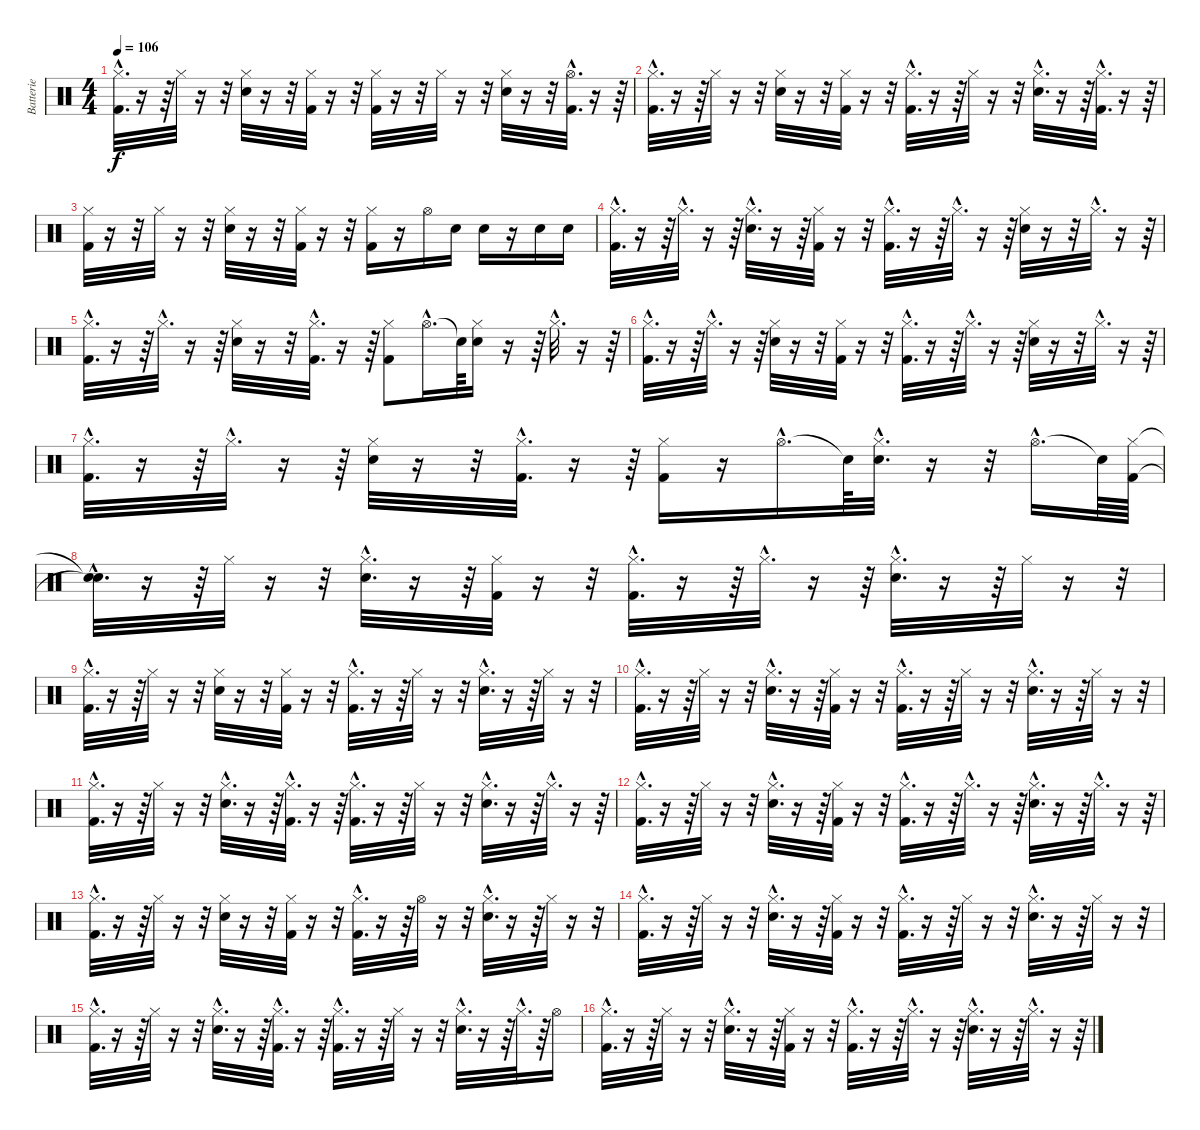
\track ("Batterie" "Batterie") {instrument percussion}
\staff {score}
\articulation defaults
\ts (4 4)
\tempo 106
\clef neutral
\ks c
("Hi-Hat (closed)"{hac} "Kick (hit) 2"{hac}).32{d dy f} r.16 r.64 "Hi-Hat (closed)".32 r.16 r.32 ("Hi-Hat (closed)" "Snare (hit) 2").32 r.16 r.32 ("Hi-Hat (closed)" "Kick (hit) 2").32 r.16 r.32 ("Hi-Hat (closed)" "Kick (hit) 2").32 r.16 r.32 "Hi-Hat (closed)".32 r.16 r.32 ("Hi-Hat (closed)" "Snare (hit) 2").32 r.16 r.32 ("Hi-Hat (open)"{hac} "Kick (hit) 2"{hac}).32{d} r.16 r.64 |
("Hi-Hat (closed)"{hac} "Kick (hit) 2"{hac}).32{d} r.16 r.64 "Hi-Hat (closed)".32 r.16 r.32 ("Hi-Hat (closed)" "Snare (hit) 2").32 r.16 r.32 ("Hi-Hat (closed)" "Kick (hit) 2").32 r.16 r.32 ("Hi-Hat (closed)"{hac} "Kick (hit) 2"{hac}).32{d} r.16 r.64 "Hi-Hat (closed)".32 r.16 r.32 ("Hi-Hat (closed)"{hac} "Snare (hit) 2"{hac}).32{d} r.16 r.64 ("Hi-Hat (closed)"{hac} "Kick (hit) 2"{hac}).32{d} r.16 r.64 |
("Hi-Hat (closed)" "Kick (hit) 2").32 r.16 r.32 "Hi-Hat (closed)".32 r.16 r.32 ("Hi-Hat (closed)" "Snare (hit) 2").32 r.16 r.32 ("Hi-Hat (closed)" "Kick (hit) 2").32 r.16 r.32 ("Hi-Hat (closed)" "Kick (hit) 2").16 r.16 "Hi-Hat (open)".16 "Snare (hit) 2".16 "Snare (hit) 2".16 r.16 "Snare (hit) 2".16 "Snare (hit) 2".16 |
("Hi-Hat (closed)"{hac} "Kick (hit) 2"{hac}).32{d} r.16 r.64 "Hi-Hat (closed)"{hac}.32{d} r.16 r.64 ("Hi-Hat (closed)"{hac} "Snare (hit) 2"{hac}).32{d} r.16 r.64 ("Hi-Hat (closed)" "Kick (hit) 2").32 r.16 r.32 ("Hi-Hat (closed)"{hac} "Kick (hit) 2"{hac}).32{d} r.16 r.64 "Hi-Hat (closed)"{hac}.32{d} r.16 r.64 ("Hi-Hat (closed)" "Snare (hit) 2").32 r.16 r.32 "Hi-Hat (closed)"{hac}.32{d} r.16 r.64 |
("Hi-Hat (closed)"{hac} "Kick (hit) 2"{hac}).32{d} r.16 r.64 "Hi-Hat (closed)"{hac}.32{d} r.16 r.64 ("Hi-Hat (closed)" "Snare (hit) 2").32 r.16 r.32 ("Hi-Hat (closed)"{hac} "Kick (hit) 2"{hac}).32{d} r.16 r.64 ("Hi-Hat (closed)" "Kick (hit) 2").8 "Hi-Hat (open)"{hac}.16{d} "Snare (hit)"{t}.64 ("Hi-Hat (closed)" "Snare (hit) 2").16 r.16 r.64 "Hi-Hat (closed)"{hac}.32{d} r.16 r.64 |
("Hi-Hat (closed)"{hac} "Kick (hit) 2"{hac}).32{d} r.16 r.64 "Hi-Hat (closed)"{hac}.32{d} r.16 r.64 ("Hi-Hat (closed)" "Snare (hit) 2").32 r.16 r.32 ("Hi-Hat (closed)" "Kick (hit) 2").32 r.16 r.32 ("Hi-Hat (closed)"{hac} "Kick (hit) 2"{hac}).32{d} r.16 r.64 "Hi-Hat (closed)"{hac}.32{d} r.16 r.64 ("Hi-Hat (closed)" "Snare (hit) 2").32 r.16 r.32 "Hi-Hat (closed)"{hac}.32{d} r.16 r.64 |
("Hi-Hat (closed)"{hac} "Kick (hit) 2"{hac}).32{d} r.16 r.64 "Hi-Hat (closed)"{hac}.32{d} r.16 r.64 ("Hi-Hat (closed)" "Snare (hit) 2").32 r.16 r.32 ("Hi-Hat (closed)"{hac} "Kick (hit) 2"{hac}).32{d} r.16 r.64 ("Hi-Hat (closed)" "Kick (hit) 2").16 r.16 "Hi-Hat (open)"{hac}.16{d} "Snare (hit)"{t}.64 ("Hi-Hat (closed)"{hac} "Snare (hit) 2"{hac}).32{d} r.16 r.32 "Hi-Hat (open)"{hac}.16{d} "Snare (hit)"{t}.64 ("Hi-Hat (closed)" "Kick (hit) 2").64 |
("Snare (hit)"{hac t} "Snare (hit)"{hac t}).32{d} r.16 r.64 "Hi-Hat (closed)".32 r.16 r.32 ("Hi-Hat (closed)"{hac} "Snare (hit) 2"{hac}).32{d} r.16 r.64 ("Hi-Hat (closed)" "Kick (hit) 2").32 r.16 r.32 ("Hi-Hat (closed)"{hac} "Kick (hit) 2"{hac}).32{d} r.16 r.64 "Hi-Hat (closed)"{hac}.32{d} r.16 r.64 ("Hi-Hat (closed)"{hac} "Snare (hit) 2"{hac}).32{d} r.16 r.64 "Hi-Hat (closed)".32 r.16 r.32 |
("Hi-Hat (closed)"{hac} "Kick (hit) 2"{hac}).32{d} r.16 r.64 "Hi-Hat (closed)".32 r.16 r.32 ("Hi-Hat (closed)" "Snare (hit) 2").32 r.16 r.32 ("Hi-Hat (closed)" "Kick (hit) 2").32 r.16 r.32 ("Hi-Hat (closed)"{hac} "Kick (hit) 2"{hac}).32{d} r.16 r.64 "Hi-Hat (closed)".32 r.16 r.32 ("Hi-Hat (closed)"{hac} "Snare (hit) 2"{hac}).32{d} r.16 r.64 "Hi-Hat (closed)".32 r.16 r.32 |
("Hi-Hat (closed)"{hac} "Kick (hit) 2"{hac}).32{d} r.16 r.64 "Hi-Hat (closed)".32 r.16 r.32 ("Hi-Hat (closed)"{hac} "Snare (hit) 2"{hac}).32{d} r.16 r.64 ("Hi-Hat (closed)" "Kick (hit) 2").32 r.16 r.32 ("Hi-Hat (closed)"{hac} "Kick (hit) 2"{hac}).32{d} r.16 r.64 "Hi-Hat (closed)".32 r.16 r.32 ("Hi-Hat (closed)"{hac} "Snare (hit) 2"{hac}).32{d} r.16 r.64 "Hi-Hat (closed)".32 r.16 r.32 |
("Hi-Hat (closed)"{hac} "Kick (hit) 2"{hac}).32{d} r.16 r.64 "Hi-Hat (closed)".32 r.16 r.32 ("Hi-Hat (closed)"{hac} "Snare (hit) 2"{hac}).32{d} r.16 r.64 ("Hi-Hat (closed)"{hac} "Kick (hit) 2"{hac}).32{d} r.16 r.64 ("Hi-Hat (closed)"{hac} "Kick (hit) 2"{hac}).32{d} r.16 r.64 "Hi-Hat (closed)".32 r.16 r.32 ("Hi-Hat (closed)"{hac} "Snare (hit) 2"{hac}).32{d} r.16 r.64 "Hi-Hat (closed)"{hac}.32{d} r.16 r.64 |
("Hi-Hat (closed)"{hac} "Kick (hit) 2"{hac}).32{d} r.16 r.64 "Hi-Hat (closed)".32 r.16 r.32 ("Hi-Hat (closed)"{hac} "Snare (hit) 2"{hac}).32{d} r.16 r.64 ("Hi-Hat (closed)" "Kick (hit) 2").32 r.16 r.32 ("Hi-Hat (closed)"{hac} "Kick (hit) 2"{hac}).32{d} r.16 r.64 "Hi-Hat (closed)"{hac}.32{d} r.16 r.64 ("Hi-Hat (closed)"{hac} "Snare (hit) 2"{hac}).32{d} r.16 r.64 "Hi-Hat (closed)"{hac}.32{d} r.16 r.64 |
("Hi-Hat (closed)"{hac} "Kick (hit) 2"{hac}).32{d} r.16 r.64 "Hi-Hat (closed)".32 r.16 r.32 ("Hi-Hat (closed)" "Snare (hit) 2").32 r.16 r.32 ("Hi-Hat (closed)" "Kick (hit) 2").32 r.16 r.32 ("Hi-Hat (closed)"{hac} "Kick (hit) 2"{hac}).32{d} r.16 r.64 "Hi-Hat (open)".32 r.16 r.32 ("Hi-Hat (closed)"{hac} "Snare (hit) 2"{hac}).32{d} r.16 r.64 "Hi-Hat (closed)".32 r.16 r.32 |
("Hi-Hat (closed)"{hac} "Kick (hit) 2"{hac}).32{d} r.16 r.64 "Hi-Hat (closed)".32 r.16 r.32 ("Hi-Hat (closed)"{hac} "Snare (hit) 2"{hac}).32{d} r.16 r.64 ("Hi-Hat (closed)" "Kick (hit) 2").32 r.16 r.32 ("Hi-Hat (closed)"{hac} "Kick (hit) 2"{hac}).32{d} r.16 r.64 "Hi-Hat (closed)".32 r.16 r.32 ("Hi-Hat (closed)"{hac} "Snare (hit) 2"{hac}).32{d} r.16 r.64 "Hi-Hat (closed)".32 r.16 r.32 |
("Hi-Hat (closed)"{hac} "Kick (hit) 2"{hac}).32{d} r.16 r.64 "Hi-Hat (closed)".32 r.16 r.32 ("Hi-Hat (closed)"{hac} "Snare (hit) 2"{hac}).32{d} r.16 r.64 ("Hi-Hat (closed)"{hac} "Kick (hit) 2"{hac}).32{d} r.16 r.64 ("Hi-Hat (closed)"{hac} "Kick (hit) 2"{hac}).32{d} r.16 r.64 "Hi-Hat (closed)".32 r.16 r.32 ("Hi-Hat (closed)"{hac} "Snare (hit) 2"{hac}).32{d} r.16 r.64 "Hi-Hat (closed)"{hac}.32{d} r.64 "Hi-Hat (open)".16 |
("Hi-Hat (closed)"{hac} "Kick (hit) 2"{hac}).32{d} r.16 r.64 "Hi-Hat (closed)".32 r.16 r.32 ("Hi-Hat (closed)"{hac} "Snare (hit) 2"{hac}).32{d} r.16 r.64 ("Hi-Hat (closed)" "Kick (hit) 2").32 r.16 r.32 ("Hi-Hat (closed)"{hac} "Kick (hit) 2"{hac}).32{d} r.16 r.64 "Hi-Hat (closed)"{hac}.32{d} r.16 r.64 ("Hi-Hat (closed)"{hac} "Snare (hit) 2"{hac}).32{d} r.16 r.64 "Hi-Hat (closed)"{hac}.32{d} r.16 r.64
